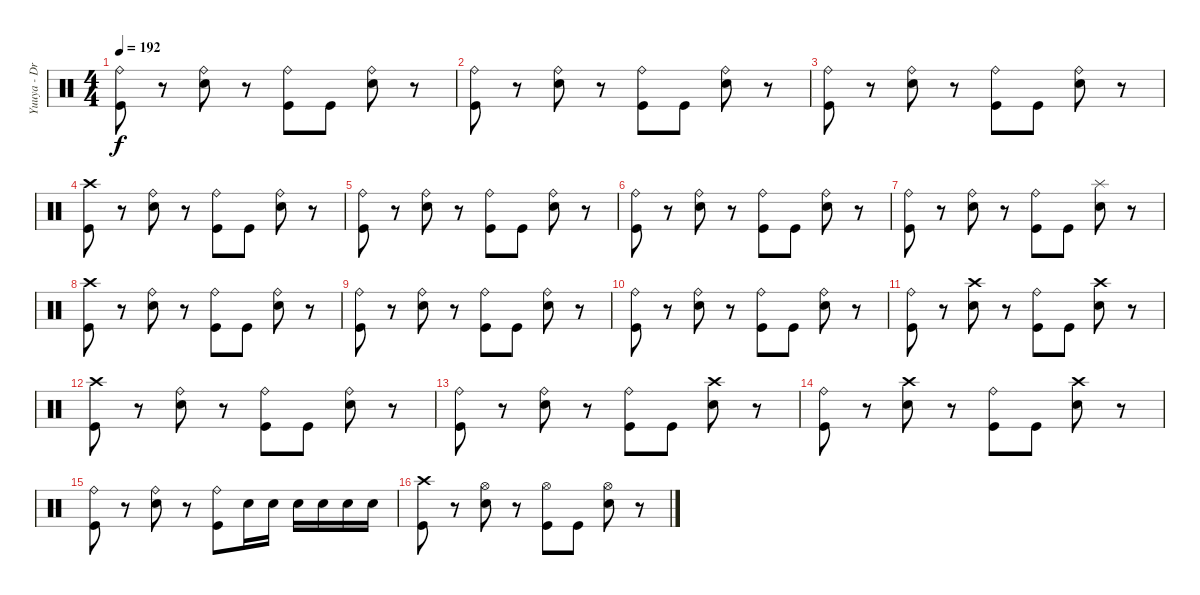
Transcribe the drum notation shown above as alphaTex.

\track ("Yuuya - Drums" "Yuuya - Dr") {instrument percussion}
\staff {score}
\articulation defaults
\ts (4 4)
\tempo 192
\clef neutral
\ks c
("Kick (hit)" "Ride (bell)").8{dy f} r.8 ("Electric Snare (hit)" "Ride (bell)").8 r.8 ("Kick (hit)" "Ride (bell)").8 "Kick (hit)".8 ("Electric Snare (hit)" "Ride (bell)").8 r.8 |
("Kick (hit)" "Ride (bell)").8 r.8 ("Electric Snare (hit)" "Ride (bell)").8 r.8 ("Kick (hit)" "Ride (bell)").8 "Kick (hit)".8 ("Electric Snare (hit)" "Ride (bell)").8 r.8 |
("Kick (hit)" "Ride (bell)").8 r.8 ("Electric Snare (hit)" "Ride (bell)").8 r.8 ("Kick (hit)" "Ride (bell)").8 "Kick (hit)".8 ("Electric Snare (hit)" "Ride (bell)").8 r.8 |
("Kick (hit)" "Crash high (hit)").8 r.8 ("Electric Snare (hit)" "Ride (bell)").8 r.8 ("Kick (hit)" "Ride (bell)").8 "Kick (hit)".8 ("Electric Snare (hit)" "Ride (bell)").8 r.8 |
("Kick (hit)" "Ride (bell)").8 r.8 ("Electric Snare (hit)" "Ride (bell)").8 r.8 ("Kick (hit)" "Ride (bell)").8 "Kick (hit)".8 ("Electric Snare (hit)" "Ride (bell)").8 r.8 |
("Kick (hit)" "Ride (bell)").8 r.8 ("Electric Snare (hit)" "Ride (bell)").8 r.8 ("Kick (hit)" "Ride (bell)").8 "Kick (hit)".8 ("Electric Snare (hit)" "Ride (bell)").8 r.8 |
("Kick (hit)" "Ride (bell)").8 r.8 ("Electric Snare (hit)" "Ride (bell)").8 r.8 ("Kick (hit)" "Ride (bell)").8 "Kick (hit)".8 ("Electric Snare (hit)" "Splash (hit)").8 r.8 |
("Kick (hit)" "Crash high (hit)").8 r.8 ("Electric Snare (hit)" "Ride (bell)").8 r.8 ("Kick (hit)" "Ride (bell)").8 "Kick (hit)".8 ("Electric Snare (hit)" "Ride (bell)").8 r.8 |
("Kick (hit)" "Ride (bell)").8 r.8 ("Electric Snare (hit)" "Ride (bell)").8 r.8 ("Kick (hit)" "Ride (bell)").8 "Kick (hit)".8 ("Electric Snare (hit)" "Ride (bell)").8 r.8 |
("Kick (hit)" "Ride (bell)").8 r.8 ("Electric Snare (hit)" "Ride (bell)").8 r.8 ("Kick (hit)" "Ride (bell)").8 "Kick (hit)".8 ("Electric Snare (hit)" "Ride (bell)").8 r.8 |
("Kick (hit)" "Ride (bell)").8 r.8 ("Electric Snare (hit)" "Crash high (hit)").8 r.8 ("Kick (hit)" "Ride (bell)").8 "Kick (hit)".8 ("Electric Snare (hit)" "Crash high (hit)").8 r.8 |
("Kick (hit)" "Crash high (hit)").8 r.8 ("Electric Snare (hit)" "Ride (bell)").8 r.8 ("Kick (hit)" "Ride (bell)").8 "Kick (hit)".8 ("Electric Snare (hit)" "Ride (bell)").8 r.8 |
("Kick (hit)" "Ride (bell)").8 r.8 ("Electric Snare (hit)" "Ride (bell)").8 r.8 ("Kick (hit)" "Ride (bell)").8 "Kick (hit)".8 ("Electric Snare (hit)" "Crash high (hit)").8 r.8 |
("Kick (hit)" "Ride (bell)").8 r.8 ("Electric Snare (hit)" "Crash high (hit)").8 r.8 ("Kick (hit)" "Ride (bell)").8 "Kick (hit)".8 ("Electric Snare (hit)" "Crash high (hit)").8 r.8 |
("Kick (hit)" "Ride (bell)").8 r.8 ("Electric Snare (hit)" "Ride (bell)").8 r.8 ("Kick (hit)" "Ride (bell)").8 "Electric Snare (hit)".16 "Electric Snare (hit)".16 "Electric Snare (hit)".16 "Electric Snare (hit)".16 "Electric Snare (hit)".16 "Electric Snare (hit)".16 |
("Kick (hit)" "Crash high (hit)").8 r.8 ("Electric Snare (hit)" "Hi-Hat (open)").8 r.8 ("Kick (hit)" "Hi-Hat (open)").8 "Kick (hit)".8 ("Electric Snare (hit)" "Hi-Hat (open)").8 r.8
